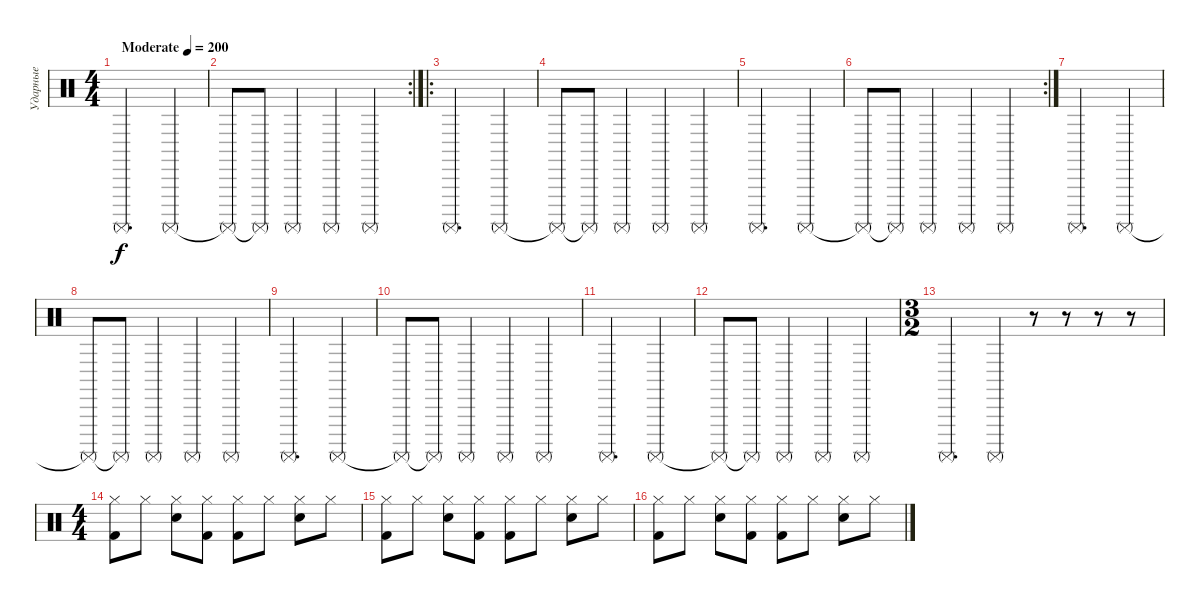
\track ("Ударные" "Ударные") {instrument percussion}
\staff {score}
\articulation defaults
\ts (4 4)
\tempo (200 "Moderate")
\clef neutral
\ks c "Surdo (mute)".2{d dy f} "Surdo (mute)".4
|
\rc 2 "Surdo (mute)"{t}.8 "Surdo (mute)"{t}.8 "Surdo (mute)".4 "Surdo (mute)".4 "Surdo (mute)".4
|
\ro "Surdo (mute)".2{d} "Surdo (mute)".4
|
"Surdo (mute)"{t}.8 "Surdo (mute)"{t}.8 "Surdo (mute)".4 "Surdo (mute)".4 "Surdo (mute)".4 |
"Surdo (mute)".2{d} "Surdo (mute)".4 |
\rc 2 "Surdo (mute)"{t}.8 "Surdo (mute)"{t}.8 "Surdo (mute)".4 "Surdo (mute)".4 "Surdo (mute)".4
|
"Surdo (mute)".2{d} "Surdo (mute)".4 |
"Surdo (mute)"{t}.8 "Surdo (mute)"{t}.8 "Surdo (mute)".4 "Surdo (mute)".4 "Surdo (mute)".4 |
"Surdo (mute)".2{d} "Surdo (mute)".4 |
"Surdo (mute)"{t}.8 "Surdo (mute)"{t}.8 "Surdo (mute)".4 "Surdo (mute)".4 "Surdo (mute)".4 |
"Surdo (mute)".2{d} "Surdo (mute)".4 |
"Surdo (mute)"{t}.8 "Surdo (mute)"{t}.8 "Surdo (mute)".4 "Surdo (mute)".4 "Surdo (mute)".4 |
\ts (3 2)
"Surdo (mute)".2{d} "Surdo (mute)".4 r.8 r.8 r.8 r.8 |
\ts (4 4)
("Kick (hit) 2" "Hi-Hat (closed)").8 "Hi-Hat (closed)".8 ("Electric Snare (hit)" "Hi-Hat (closed)").8 ("Kick (hit) 2" "Hi-Hat (closed)").8 ("Kick (hit) 2" "Hi-Hat (closed)").8 "Hi-Hat (closed)".8 ("Electric Snare (hit)" "Hi-Hat (closed)").8 "Hi-Hat (closed)".8 |
("Kick (hit) 2" "Hi-Hat (closed)").8 "Hi-Hat (closed)".8 ("Electric Snare (hit)" "Hi-Hat (closed)").8 ("Kick (hit) 2" "Hi-Hat (closed)").8 ("Kick (hit) 2" "Hi-Hat (closed)").8 "Hi-Hat (closed)".8 ("Electric Snare (hit)" "Hi-Hat (closed)").8 "Hi-Hat (closed)".8 |
("Kick (hit) 2" "Hi-Hat (closed)").8 "Hi-Hat (closed)".8 ("Electric Snare (hit)" "Hi-Hat (closed)").8 ("Kick (hit) 2" "Hi-Hat (closed)").8 ("Kick (hit) 2" "Hi-Hat (closed)").8 "Hi-Hat (closed)".8 ("Electric Snare (hit)" "Hi-Hat (closed)").8 "Hi-Hat (closed)".8
